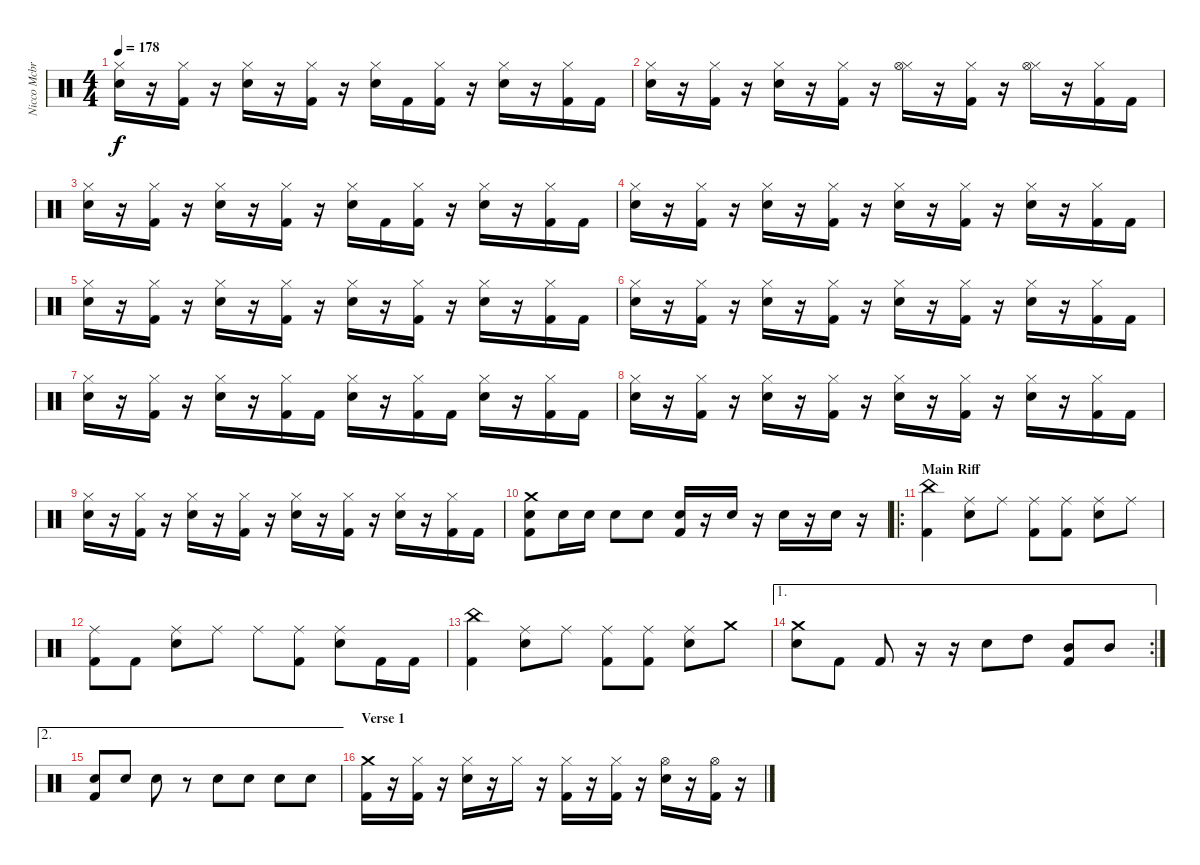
\track ("Nicco Mcbrian - Drums" "Nicco Mcbr") {instrument percussion}
\staff {score}
\articulation defaults
\ts (4 4)
\tempo 178
\clef neutral
\ks c
("Hi-Hat (closed)" "Snare (hit) 2").16{dy f} r.16 ("Hi-Hat (closed)" "Kick (hit) 2").16 r.16 ("Hi-Hat (closed)" "Snare (hit) 2").16 r.16 ("Hi-Hat (closed)" "Kick (hit) 2").16 r.16 ("Hi-Hat (closed)" "Snare (hit) 2").16 "Kick (hit) 2".16 ("Hi-Hat (closed)" "Kick (hit) 2").16 r.16 ("Hi-Hat (closed)" "Snare (hit) 2").16 r.16 ("Hi-Hat (closed)" "Kick (hit) 2").16 "Kick (hit) 2".16 |
("Hi-Hat (closed)" "Snare (hit) 2").16 r.16 ("Hi-Hat (closed)" "Kick (hit) 2").16 r.16 ("Hi-Hat (closed)" "Snare (hit) 2").16 r.16 ("Hi-Hat (closed)" "Kick (hit) 2").16 r.16 ("Hi-Hat (closed)" "Hi-Hat (open)").16 r.16 ("Hi-Hat (closed)" "Kick (hit) 2").16 r.16 ("Hi-Hat (closed)" "Hi-Hat (open)").16 r.16 ("Hi-Hat (closed)" "Kick (hit) 2").16 "Kick (hit) 2".16 |
("Hi-Hat (closed)" "Snare (hit) 2").16 r.16 ("Hi-Hat (closed)" "Kick (hit) 2").16 r.16 ("Hi-Hat (closed)" "Snare (hit) 2").16 r.16 ("Hi-Hat (closed)" "Kick (hit) 2").16 r.16 ("Hi-Hat (closed)" "Snare (hit) 2").16 "Kick (hit) 2".16 ("Hi-Hat (closed)" "Kick (hit) 2").16 r.16 ("Hi-Hat (closed)" "Snare (hit) 2").16 r.16 ("Hi-Hat (closed)" "Kick (hit) 2").16 "Kick (hit) 2".16 |
("Hi-Hat (closed)" "Snare (hit) 2").16 r.16 ("Hi-Hat (closed)" "Kick (hit) 2").16 r.16 ("Hi-Hat (closed)" "Snare (hit) 2").16 r.16 ("Hi-Hat (closed)" "Kick (hit) 2").16 r.16 ("Hi-Hat (closed)" "Snare (hit) 2").16 r.16 ("Hi-Hat (closed)" "Kick (hit) 2").16 r.16 ("Hi-Hat (closed)" "Snare (hit) 2").16 r.16 ("Hi-Hat (closed)" "Kick (hit) 2").16 "Kick (hit) 2".16 |
("Hi-Hat (closed)" "Snare (hit) 2").16 r.16 ("Hi-Hat (closed)" "Kick (hit) 2").16 r.16 ("Hi-Hat (closed)" "Snare (hit) 2").16 r.16 ("Hi-Hat (closed)" "Kick (hit) 2").16 r.16 ("Hi-Hat (closed)" "Snare (hit) 2").16 r.16 ("Hi-Hat (closed)" "Kick (hit) 2").16 r.16 ("Hi-Hat (closed)" "Snare (hit) 2").16 r.16 ("Hi-Hat (closed)" "Kick (hit) 2").16 "Kick (hit) 2".16 |
("Hi-Hat (closed)" "Snare (hit) 2").16 r.16 ("Hi-Hat (closed)" "Kick (hit) 2").16 r.16 ("Hi-Hat (closed)" "Snare (hit) 2").16 r.16 ("Hi-Hat (closed)" "Kick (hit) 2").16 r.16 ("Hi-Hat (closed)" "Snare (hit) 2").16 r.16 ("Hi-Hat (closed)" "Kick (hit) 2").16 r.16 ("Hi-Hat (closed)" "Snare (hit) 2").16 r.16 ("Hi-Hat (closed)" "Kick (hit) 2").16 "Kick (hit) 2".16 |
("Hi-Hat (closed)" "Snare (hit) 2").16 r.16 ("Hi-Hat (closed)" "Kick (hit) 2").16 r.16 ("Hi-Hat (closed)" "Snare (hit) 2").16 r.16 ("Hi-Hat (closed)" "Kick (hit) 2").16 "Kick (hit) 2".16 ("Hi-Hat (closed)" "Snare (hit) 2").16 r.16 ("Hi-Hat (closed)" "Kick (hit) 2").16 "Kick (hit) 2".16 ("Hi-Hat (closed)" "Snare (hit) 2").16 r.16 ("Hi-Hat (closed)" "Kick (hit) 2").16 "Kick (hit) 2".16 |
("Hi-Hat (closed)" "Snare (hit) 2").16 r.16 ("Hi-Hat (closed)" "Kick (hit) 2").16 r.16 ("Hi-Hat (closed)" "Snare (hit) 2").16 r.16 ("Hi-Hat (closed)" "Kick (hit) 2").16 r.16 ("Hi-Hat (closed)" "Snare (hit) 2").16 r.16 ("Hi-Hat (closed)" "Kick (hit) 2").16 r.16 ("Hi-Hat (closed)" "Snare (hit) 2").16 r.16 ("Hi-Hat (closed)" "Kick (hit) 2").16 "Kick (hit) 2".16 |
("Hi-Hat (closed)" "Snare (hit) 2").16 r.16 ("Hi-Hat (closed)" "Kick (hit) 2").16 r.16 ("Hi-Hat (closed)" "Snare (hit) 2").16 r.16 ("Hi-Hat (closed)" "Kick (hit) 2").16 r.16 ("Hi-Hat (closed)" "Snare (hit) 2").16 r.16 ("Hi-Hat (closed)" "Kick (hit) 2").16 r.16 ("Hi-Hat (closed)" "Snare (hit) 2").16 r.16 ("Hi-Hat (closed)" "Kick (hit) 2").16 "Kick (hit) 2".16 |
("Crash medium (hit)" "Snare (hit) 2" "Kick (hit) 2").8 "Snare (hit) 2".16 "Snare (hit) 2".16 "Snare (hit) 2".8 "Snare (hit) 2".8 ("Snare (hit) 2" "Kick (hit) 2").16 r.16 "Snare (hit) 2".16 r.16 "Snare (hit) 2".16 r.16 "Snare (hit) 2".16 r.16 |
\ro
\section ("" "Main Riff")
("China (hit)" "Kick (hit) 2").4 ("Ride (middle)" "Snare (hit) 2").8 "Ride (middle)".8 ("Ride (middle)" "Kick (hit) 2").8 ("Ride (middle)" "Kick (hit) 2").8 ("Ride (middle)" "Snare (hit) 2").8 "Ride (middle)".8 |
("Ride (middle)" "Kick (hit) 2").8 "Kick (hit) 2".8 ("Ride (middle)" "Snare (hit) 2").8 "Ride (middle)".8 "Ride (middle)".8 ("Ride (middle)" "Kick (hit) 2").8 ("Ride (middle)" "Snare (hit) 2").8 "Kick (hit) 2".16 "Kick (hit) 2".16 |
("China (hit)" "Kick (hit) 2").4 ("Ride (middle)" "Snare (hit) 2").8 "Ride (middle)".8 ("Ride (middle)" "Kick (hit) 2").8 ("Ride (middle)" "Kick (hit) 2").8 ("Ride (middle)" "Snare (hit) 2").8 "Crash medium (hit)".8 |
\ae 1
\rc 2
("Crash medium (hit)" "Snare (hit) 2").8 "Kick (hit) 2".8 "Kick (hit) 2".8 r.16 r.16 "Snare (hit) 2".8 "High Tom (hit)".8 ("Mid Tom (hit)" "Kick (hit) 2").8 "Mid Tom (hit)".8 |
\ae 2
("Snare (hit) 2" "Kick (hit) 2").8 "Snare (hit) 2".8 "Snare (hit) 2".8 r.8 "Snare (hit) 2".8 "Snare (hit) 2".8 "Snare (hit) 2".8 "Snare (hit) 2".8 |
\section ("" "Verse 1")
("Crash medium (hit)" "Kick (hit) 2").16 r.16 ("Hi-Hat (closed)" "Kick (hit) 2").16 r.16 ("Hi-Hat (closed)" "Snare (hit) 2").16 r.16 "Hi-Hat (closed)".16 r.16 ("Hi-Hat (closed)" "Kick (hit) 2").16 r.16 ("Hi-Hat (closed)" "Kick (hit) 2").16 r.16 ("Hi-Hat (open)" "Snare (hit) 2").16 r.16 ("Hi-Hat (open)" "Kick (hit) 2").16 r.16
